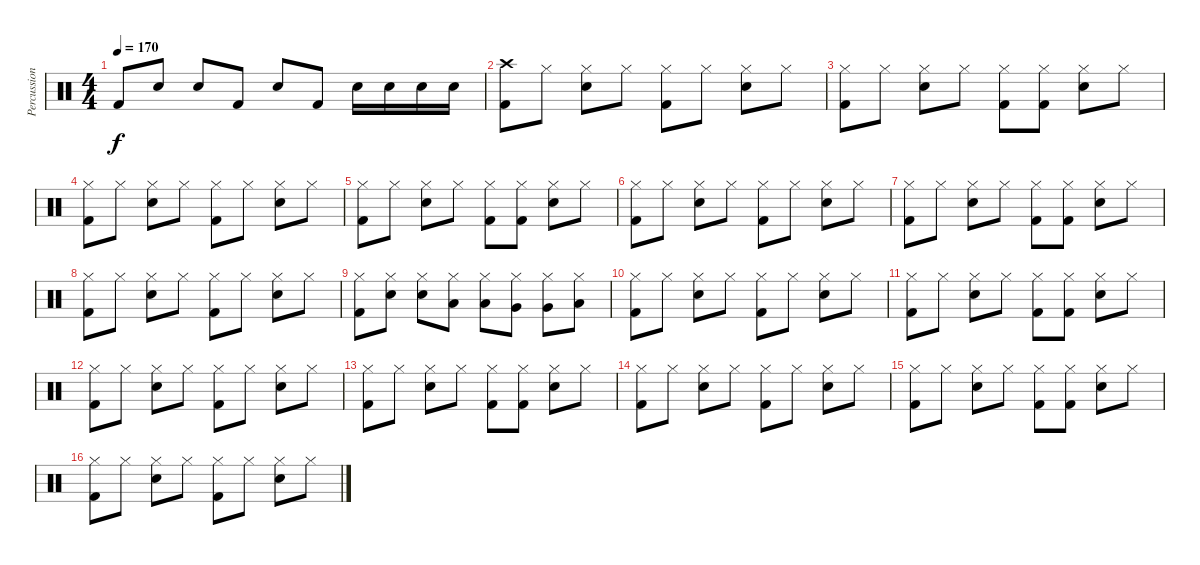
\track ("Percussion" "Percussion") {instrument percussion}
\staff {score}
\articulation defaults
\ts (4 4)
\tempo 170
\clef neutral
\ks c "Kick (hit) 2".8{dy f} "Snare (hit) 2".8 "Snare (hit) 2".8 "Kick (hit) 2".8 "Snare (hit) 2".8 "Kick (hit) 2".8 "Snare (hit) 2".16 "Snare (hit) 2".16 "Snare (hit) 2".16 "Snare (hit) 2".16
|
("Crash high (hit)" "Kick (hit) 2").8 "Hi-Hat (closed)".8 ("Hi-Hat (closed)" "Snare (hit) 2").8 "Hi-Hat (closed)".8 ("Hi-Hat (closed)" "Kick (hit) 2").8 "Hi-Hat (closed)".8 ("Hi-Hat (closed)" "Snare (hit) 2").8 "Hi-Hat (closed)".8 |
("Hi-Hat (closed)" "Kick (hit) 2").8 "Hi-Hat (closed)".8 ("Hi-Hat (closed)" "Snare (hit) 2").8 "Hi-Hat (closed)".8 ("Hi-Hat (closed)" "Kick (hit) 2").8 ("Hi-Hat (closed)" "Kick (hit) 2").8 ("Hi-Hat (closed)" "Snare (hit) 2").8 "Hi-Hat (closed)".8 |
("Hi-Hat (closed)" "Kick (hit) 2").8 "Hi-Hat (closed)".8 ("Hi-Hat (closed)" "Snare (hit) 2").8 "Hi-Hat (closed)".8 ("Hi-Hat (closed)" "Kick (hit) 2").8 "Hi-Hat (closed)".8 ("Hi-Hat (closed)" "Snare (hit) 2").8 "Hi-Hat (closed)".8 |
("Hi-Hat (closed)" "Kick (hit) 2").8 "Hi-Hat (closed)".8 ("Hi-Hat (closed)" "Snare (hit) 2").8 "Hi-Hat (closed)".8 ("Hi-Hat (closed)" "Kick (hit) 2").8 ("Hi-Hat (closed)" "Kick (hit) 2").8 ("Hi-Hat (closed)" "Snare (hit) 2").8 "Hi-Hat (closed)".8 |
("Hi-Hat (closed)" "Kick (hit) 2").8 "Hi-Hat (closed)".8 ("Hi-Hat (closed)" "Snare (hit) 2").8 "Hi-Hat (closed)".8 ("Hi-Hat (closed)" "Kick (hit) 2").8 "Hi-Hat (closed)".8 ("Hi-Hat (closed)" "Snare (hit) 2").8 "Hi-Hat (closed)".8 |
("Hi-Hat (closed)" "Kick (hit) 2").8 "Hi-Hat (closed)".8 ("Hi-Hat (closed)" "Snare (hit) 2").8 "Hi-Hat (closed)".8 ("Hi-Hat (closed)" "Kick (hit) 2").8 ("Hi-Hat (closed)" "Kick (hit) 2").8 ("Hi-Hat (closed)" "Snare (hit) 2").8 "Hi-Hat (closed)".8 |
("Hi-Hat (closed)" "Kick (hit) 2").8 "Hi-Hat (closed)".8 ("Hi-Hat (closed)" "Snare (hit) 2").8 "Hi-Hat (closed)".8 ("Hi-Hat (closed)" "Kick (hit) 2").8 "Hi-Hat (closed)".8 ("Hi-Hat (closed)" "Snare (hit) 2").8 "Hi-Hat (closed)".8 |
("Hi-Hat (closed)" "Kick (hit) 2").8 ("Hi-Hat (closed)" "Snare (hit) 2").8 ("Hi-Hat (closed)" "Snare (hit) 2").8 ("Hi-Hat (closed)" "Low Tom (hit)").8 ("Hi-Hat (closed)" "Low Tom (hit)").8 ("Hi-Hat (closed)" "Very Low Tom (hit)").8 ("Hi-Hat (closed)" "Very Low Tom (hit)").8 ("Hi-Hat (closed)" "Low Floor Tom (hit)").8 |
("Hi-Hat (closed)" "Kick (hit) 2").8 "Hi-Hat (closed)".8 ("Hi-Hat (closed)" "Snare (hit) 2").8 "Hi-Hat (closed)".8 ("Hi-Hat (closed)" "Kick (hit) 2").8 "Hi-Hat (closed)".8 ("Hi-Hat (closed)" "Snare (hit) 2").8 "Hi-Hat (closed)".8 |
("Hi-Hat (closed)" "Kick (hit) 2").8 "Hi-Hat (closed)".8 ("Hi-Hat (closed)" "Snare (hit) 2").8 "Hi-Hat (closed)".8 ("Hi-Hat (closed)" "Kick (hit) 2").8 ("Hi-Hat (closed)" "Kick (hit) 2").8 ("Hi-Hat (closed)" "Snare (hit) 2").8 "Hi-Hat (closed)".8 |
("Hi-Hat (closed)" "Kick (hit) 2").8 "Hi-Hat (closed)".8 ("Hi-Hat (closed)" "Snare (hit) 2").8 "Hi-Hat (closed)".8 ("Hi-Hat (closed)" "Kick (hit) 2").8 "Hi-Hat (closed)".8 ("Hi-Hat (closed)" "Snare (hit) 2").8 "Hi-Hat (closed)".8 |
("Hi-Hat (closed)" "Kick (hit) 2").8 "Hi-Hat (closed)".8 ("Hi-Hat (closed)" "Snare (hit) 2").8 "Hi-Hat (closed)".8 ("Hi-Hat (closed)" "Kick (hit) 2").8 ("Hi-Hat (closed)" "Kick (hit) 2").8 ("Hi-Hat (closed)" "Snare (hit) 2").8 "Hi-Hat (closed)".8 |
("Hi-Hat (closed)" "Kick (hit) 2").8 "Hi-Hat (closed)".8 ("Hi-Hat (closed)" "Snare (hit) 2").8 "Hi-Hat (closed)".8 ("Hi-Hat (closed)" "Kick (hit) 2").8 "Hi-Hat (closed)".8 ("Hi-Hat (closed)" "Snare (hit) 2").8 "Hi-Hat (closed)".8 |
("Hi-Hat (closed)" "Kick (hit) 2").8 "Hi-Hat (closed)".8 ("Hi-Hat (closed)" "Snare (hit) 2").8 "Hi-Hat (closed)".8 ("Hi-Hat (closed)" "Kick (hit) 2").8 ("Hi-Hat (closed)" "Kick (hit) 2").8 ("Hi-Hat (closed)" "Snare (hit) 2").8 "Hi-Hat (closed)".8 |
("Hi-Hat (closed)" "Kick (hit) 2").8 "Hi-Hat (closed)".8 ("Hi-Hat (closed)" "Snare (hit) 2").8 "Hi-Hat (closed)".8 ("Hi-Hat (closed)" "Kick (hit) 2").8 "Hi-Hat (closed)".8 ("Hi-Hat (closed)" "Snare (hit) 2").8 "Hi-Hat (closed)".8
